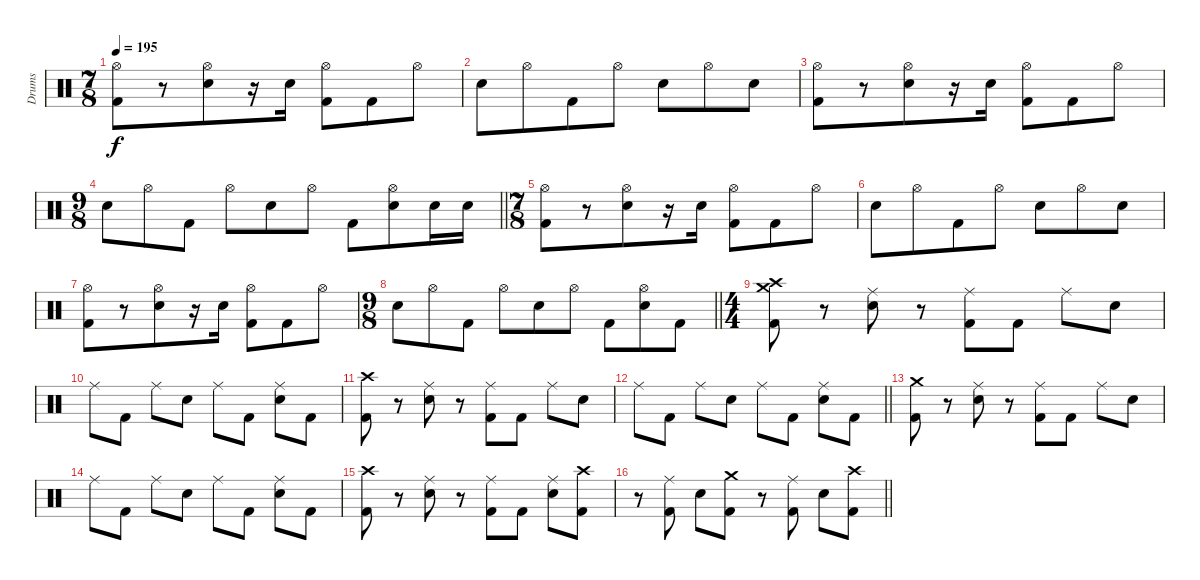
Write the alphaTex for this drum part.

\track ("Drums" "Drums") {instrument percussion}
\staff {score}
\articulation defaults
\ts (7 8)
\tempo 195
\clef neutral
\ks c
("Hi-Hat (open)" "Kick (hit) 2").8{dy f} r.8 ("Hi-Hat (open)" "Electric Snare (hit)").8 r.16 "Electric Snare (hit)".16 ("Hi-Hat (open)" "Kick (hit) 2").8 "Kick (hit) 2".8 "Hi-Hat (open)".8 |
"Electric Snare (hit)".8 "Hi-Hat (open)".8 "Kick (hit) 2".8 "Hi-Hat (open)".8 "Electric Snare (hit)".8 "Hi-Hat (open)".8 "Electric Snare (hit)".8 |
("Hi-Hat (open)" "Kick (hit) 2").8 r.8 ("Hi-Hat (open)" "Electric Snare (hit)").8 r.16 "Electric Snare (hit)".16 ("Hi-Hat (open)" "Kick (hit) 2").8 "Kick (hit) 2".8 "Hi-Hat (open)".8 |
\ts (9 8)
\barLineRight lightlight "Electric Snare (hit)".8 "Hi-Hat (open)".8 "Kick (hit) 2".8 "Hi-Hat (open)".8 "Electric Snare (hit)".8 "Hi-Hat (open)".8 "Kick (hit) 2".8
("Hi-Hat (open)" "Electric Snare (hit)").8 "Electric Snare (hit)".16 "Electric Snare (hit)".16 |
\ts (7 8)
("Hi-Hat (open)" "Kick (hit) 2").8 r.8 ("Hi-Hat (open)" "Electric Snare (hit)").8 r.16 "Electric Snare (hit)".16 ("Hi-Hat (open)" "Kick (hit) 2").8 "Kick (hit) 2".8 "Hi-Hat (open)".8 |
"Electric Snare (hit)".8 "Hi-Hat (open)".8 "Kick (hit) 2".8 "Hi-Hat (open)".8 "Electric Snare (hit)".8 "Hi-Hat (open)".8 "Electric Snare (hit)".8 |
("Hi-Hat (open)" "Kick (hit) 2").8 r.8 ("Hi-Hat (open)" "Electric Snare (hit)").8 r.16 "Electric Snare (hit)".16 ("Hi-Hat (open)" "Kick (hit) 2").8 "Kick (hit) 2".8 "Hi-Hat (open)".8 |
\ts (9 8)
\barLineRight lightlight "Electric Snare (hit)".8 "Hi-Hat (open)".8 "Kick (hit) 2".8 "Hi-Hat (open)".8 "Electric Snare (hit)".8 "Hi-Hat (open)".8 "Kick (hit) 2".8
("Hi-Hat (open)" "Electric Snare (hit)").8 "Kick (hit) 2".8 |
\ts (4 4)
("Crash high (hit)" "Crash medium (hit)" "Kick (hit) 2").8 r.8 ("Ride (middle)" "Electric Snare (hit)").8 r.8 ("Ride (middle)" "Kick (hit) 2").8 "Kick (hit) 2".8 "Ride (middle)".8 "Electric Snare (hit)".8 |
"Ride (middle)".8 "Kick (hit) 2".8 "Ride (middle)".8 "Electric Snare (hit)".8 "Ride (middle)".8 "Kick (hit) 2".8 ("Ride (middle)" "Electric Snare (hit)").8 "Kick (hit) 2".8 |
("Crash high (hit)" "Kick (hit) 2").8 r.8 ("Ride (middle)" "Electric Snare (hit)").8 r.8 ("Ride (middle)" "Kick (hit) 2").8 "Kick (hit) 2".8 "Ride (middle)".8 "Electric Snare (hit)".8 |
\barLineRight lightlight "Ride (middle)".8 "Kick (hit) 2".8 "Ride (middle)".8 "Electric Snare (hit)".8 "Ride (middle)".8 "Kick (hit) 2".8
("Ride (middle)" "Electric Snare (hit)").8 "Kick (hit) 2".8 |
("Crash medium (hit)" "Kick (hit) 2").8 r.8 ("Ride (middle)" "Electric Snare (hit)").8 r.8 ("Ride (middle)" "Kick (hit) 2").8 "Kick (hit) 2".8 "Ride (middle)".8 "Electric Snare (hit)".8 |
"Ride (middle)".8 "Kick (hit) 2".8 "Ride (middle)".8 "Electric Snare (hit)".8 "Ride (middle)".8 "Kick (hit) 2".8 ("Ride (middle)" "Electric Snare (hit)").8 "Kick (hit) 2".8 |
("Crash high (hit)" "Kick (hit) 2").8 r.8 ("Ride (middle)" "Electric Snare (hit)").8 r.8 ("Ride (middle)" "Kick (hit) 2").8 "Kick (hit) 2".8 ("Ride (middle)" "Electric Snare (hit)").8 ("Crash high (hit)" "Kick (hit) 2").8 |
\barLineRight lightlight
r.8 ("Ride (middle)" "Kick (hit) 2").8 "Electric Snare (hit)".8 ("Crash medium (hit)" "Kick (hit) 2").8 r.8 ("Ride (middle)" "Kick (hit) 2").8 "Electric Snare (hit)".8 ("Crash high (hit)" "Kick (hit) 2").8
